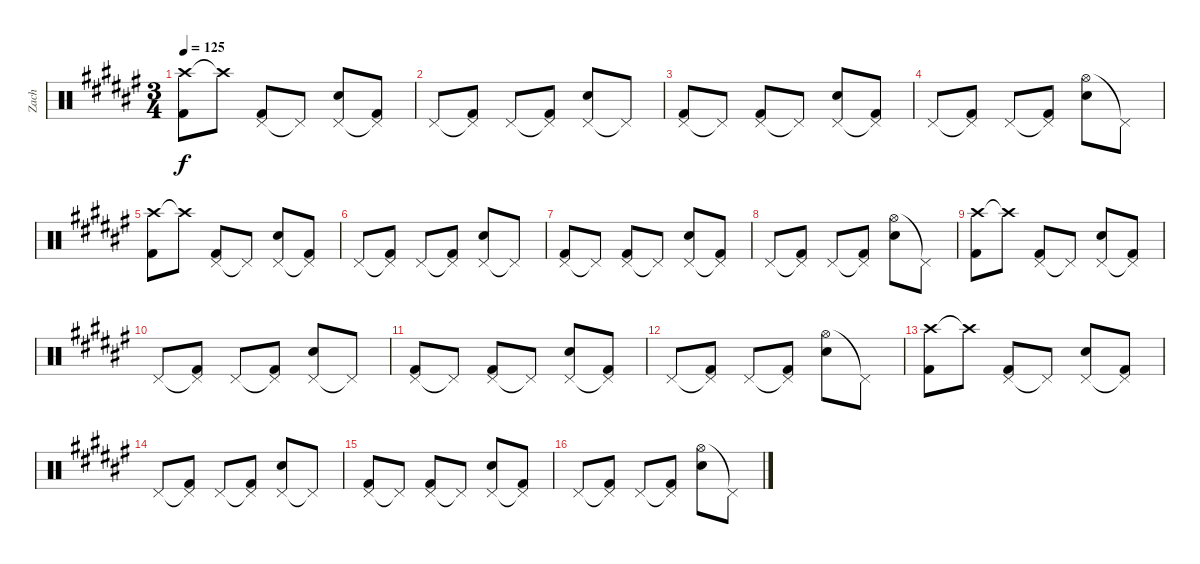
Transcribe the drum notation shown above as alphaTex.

\track ("Zach" "Zach") {instrument percussion}
\staff {score}
\articulation defaults
\ts (3 4)
\tempo 125
\clef neutral
\ks f#
("Crash high (hit)" "Kick (hit) 2").8{dy f} "Crash high (hit)"{t}.8 ("Pedal Hi-Hat (hit)" "Kick (hit) 2").8 "Pedal Hi-Hat (hit)"{t}.8 ("Pedal Hi-Hat (hit)" "Snare (hit) 2").8 ("Pedal Hi-Hat (hit)"{t} "Kick (hit) 2").8 |
"Pedal Hi-Hat (hit)".8 ("Pedal Hi-Hat (hit)"{t} "Kick (hit) 2").8 "Pedal Hi-Hat (hit)".8 ("Pedal Hi-Hat (hit)"{t} "Kick (hit) 2").8 ("Pedal Hi-Hat (hit)" "Snare (hit) 2").8 "Pedal Hi-Hat (hit)"{t}.8 |
("Pedal Hi-Hat (hit)" "Kick (hit) 2").8 "Pedal Hi-Hat (hit)"{t}.8 ("Pedal Hi-Hat (hit)" "Kick (hit) 2").8 "Pedal Hi-Hat (hit)"{t}.8 ("Pedal Hi-Hat (hit)" "Snare (hit) 2").8 ("Pedal Hi-Hat (hit)"{t} "Kick (hit) 2").8 |
"Pedal Hi-Hat (hit)".8 ("Pedal Hi-Hat (hit)"{t} "Kick (hit) 2").8 "Pedal Hi-Hat (hit)".8 ("Pedal Hi-Hat (hit)"{t} "Kick (hit) 2").8 ("Hi-Hat (open)" "Snare (hit) 2").8 "Pedal Hi-Hat (hit)"{t}.8 |
("Crash high (hit)" "Kick (hit) 2").8 "Crash high (hit)"{t}.8 ("Pedal Hi-Hat (hit)" "Kick (hit) 2").8 "Pedal Hi-Hat (hit)"{t}.8 ("Pedal Hi-Hat (hit)" "Snare (hit) 2").8 ("Pedal Hi-Hat (hit)"{t} "Kick (hit) 2").8 |
"Pedal Hi-Hat (hit)".8 ("Pedal Hi-Hat (hit)"{t} "Kick (hit) 2").8 "Pedal Hi-Hat (hit)".8 ("Pedal Hi-Hat (hit)"{t} "Kick (hit) 2").8 ("Pedal Hi-Hat (hit)" "Snare (hit) 2").8 "Pedal Hi-Hat (hit)"{t}.8 |
("Pedal Hi-Hat (hit)" "Kick (hit) 2").8 "Pedal Hi-Hat (hit)"{t}.8 ("Pedal Hi-Hat (hit)" "Kick (hit) 2").8 "Pedal Hi-Hat (hit)"{t}.8 ("Pedal Hi-Hat (hit)" "Snare (hit) 2").8 ("Pedal Hi-Hat (hit)"{t} "Kick (hit) 2").8 |
"Pedal Hi-Hat (hit)".8 ("Pedal Hi-Hat (hit)"{t} "Kick (hit) 2").8 "Pedal Hi-Hat (hit)".8 ("Pedal Hi-Hat (hit)"{t} "Kick (hit) 2").8 ("Hi-Hat (open)" "Snare (hit) 2").8 "Pedal Hi-Hat (hit)"{t}.8 |
("Crash high (hit)" "Kick (hit) 2").8 "Crash high (hit)"{t}.8 ("Pedal Hi-Hat (hit)" "Kick (hit) 2").8 "Pedal Hi-Hat (hit)"{t}.8 ("Pedal Hi-Hat (hit)" "Snare (hit) 2").8 ("Pedal Hi-Hat (hit)"{t} "Kick (hit) 2").8 |
"Pedal Hi-Hat (hit)".8 ("Pedal Hi-Hat (hit)"{t} "Kick (hit) 2").8 "Pedal Hi-Hat (hit)".8 ("Pedal Hi-Hat (hit)"{t} "Kick (hit) 2").8 ("Pedal Hi-Hat (hit)" "Snare (hit) 2").8 "Pedal Hi-Hat (hit)"{t}.8 |
("Pedal Hi-Hat (hit)" "Kick (hit) 2").8 "Pedal Hi-Hat (hit)"{t}.8 ("Pedal Hi-Hat (hit)" "Kick (hit) 2").8 "Pedal Hi-Hat (hit)"{t}.8 ("Pedal Hi-Hat (hit)" "Snare (hit) 2").8 ("Pedal Hi-Hat (hit)"{t} "Kick (hit) 2").8 |
"Pedal Hi-Hat (hit)".8 ("Pedal Hi-Hat (hit)"{t} "Kick (hit) 2").8 "Pedal Hi-Hat (hit)".8 ("Pedal Hi-Hat (hit)"{t} "Kick (hit) 2").8 ("Hi-Hat (open)" "Snare (hit) 2").8 "Pedal Hi-Hat (hit)"{t}.8 |
("Crash high (hit)" "Kick (hit) 2").8 "Crash high (hit)"{t}.8 ("Pedal Hi-Hat (hit)" "Kick (hit) 2").8 "Pedal Hi-Hat (hit)"{t}.8 ("Pedal Hi-Hat (hit)" "Snare (hit) 2").8 ("Pedal Hi-Hat (hit)"{t} "Kick (hit) 2").8 |
"Pedal Hi-Hat (hit)".8 ("Pedal Hi-Hat (hit)"{t} "Kick (hit) 2").8 "Pedal Hi-Hat (hit)".8 ("Pedal Hi-Hat (hit)"{t} "Kick (hit) 2").8 ("Pedal Hi-Hat (hit)" "Snare (hit) 2").8 "Pedal Hi-Hat (hit)"{t}.8 |
("Pedal Hi-Hat (hit)" "Kick (hit) 2").8 "Pedal Hi-Hat (hit)"{t}.8 ("Pedal Hi-Hat (hit)" "Kick (hit) 2").8 "Pedal Hi-Hat (hit)"{t}.8 ("Pedal Hi-Hat (hit)" "Snare (hit) 2").8 ("Pedal Hi-Hat (hit)"{t} "Kick (hit) 2").8 |
"Pedal Hi-Hat (hit)".8 ("Pedal Hi-Hat (hit)"{t} "Kick (hit) 2").8 "Pedal Hi-Hat (hit)".8 ("Pedal Hi-Hat (hit)"{t} "Kick (hit) 2").8 ("Hi-Hat (open)" "Snare (hit) 2").8 "Pedal Hi-Hat (hit)"{t}.8
